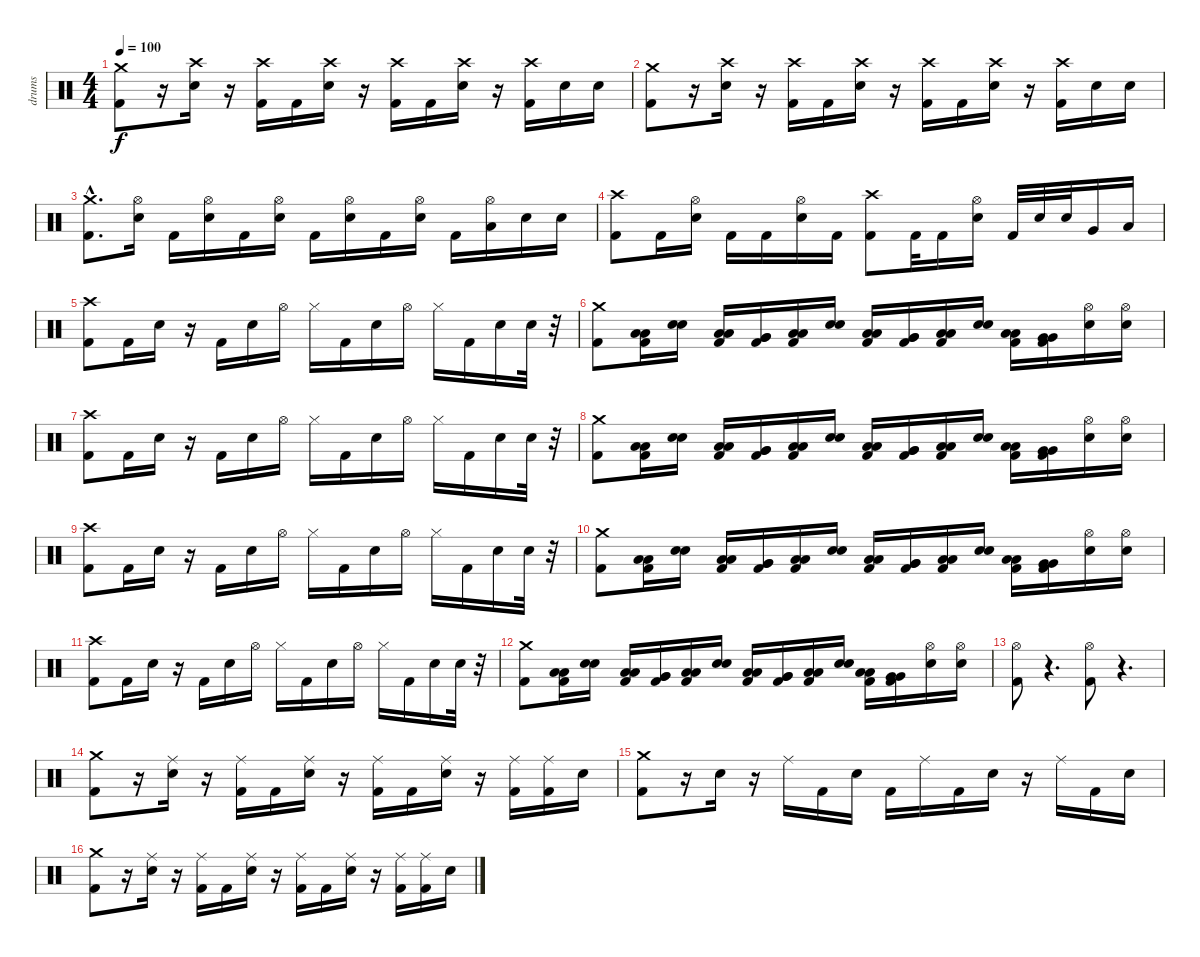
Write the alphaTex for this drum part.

\track ("drums" "drums") {instrument percussion}
\staff {score}
\articulation defaults
\ts (4 4)
\tempo 100
\clef neutral
\ks aminor
("Crash medium (hit)" "Kick (hit) 2").8{dy f} r.16 ("Crash high (hit)" "Snare (hit) 2").16 r.16 ("Crash high (hit)" "Kick (hit) 2").16 "Kick (hit) 2".16 ("Crash high (hit)" "Snare (hit) 2").16 r.16 ("Crash high (hit)" "Kick (hit) 2").16 "Kick (hit) 2".16 ("Crash high (hit)" "Snare (hit) 2").16 r.16 ("Crash high (hit)" "Kick (hit) 2").16 "Snare (hit) 2".16 "Snare (hit) 2".16 |
("Crash medium (hit)" "Kick (hit) 2").8 r.16 ("Crash high (hit)" "Snare (hit) 2").16 r.16 ("Crash high (hit)" "Kick (hit) 2").16 "Kick (hit) 2".16 ("Crash high (hit)" "Snare (hit) 2").16 r.16 ("Crash high (hit)" "Kick (hit) 2").16 "Kick (hit) 2".16 ("Crash high (hit)" "Snare (hit) 2").16 r.16 ("Crash high (hit)" "Kick (hit) 2").16 "Snare (hit) 2".16 "Snare (hit) 2".16 |
("Crash medium (hit)"{hac} "Kick (hit) 2"{hac}).8{d} ("Hi-Hat (open)" "Snare (hit) 2").16 "Kick (hit) 2".16 ("Hi-Hat (open)" "Snare (hit) 2").16 "Kick (hit) 2".16 ("Hi-Hat (open)" "Snare (hit) 2").16 "Kick (hit) 2".16 ("Hi-Hat (open)" "Snare (hit) 2").16 "Kick (hit) 2".16 ("Hi-Hat (open)" "Snare (hit) 2").16 "Kick (hit) 2".16 ("Hi-Hat (open)" "Low Floor Tom (hit)").16 "Snare (hit) 2".16 "Snare (hit) 2".16 |
("Crash high (hit)" "Kick (hit) 2").8 "Kick (hit) 2".16 ("Hi-Hat (open)" "Snare (hit) 2").16 "Kick (hit) 2".16 "Kick (hit) 2".16 ("Hi-Hat (open)" "Snare (hit) 2").16 "Kick (hit) 2".16 ("Crash high (hit)" "Kick (hit) 2").8 "Kick (hit) 2".32 "Kick (hit) 2".16 ("Hi-Hat (open)" "Snare (hit) 2").16 "Kick (hit) 2".32 "Snare (hit) 2".32 "Snare (hit) 2".32 "Very Low Tom (hit)".16 "Low Floor Tom (hit)".16 |
("Crash high (hit)" "Kick (hit) 2").8 "Kick (hit) 2".16 "Snare (hit) 2".16 r.16 "Kick (hit) 2".16 "Snare (hit) 2".16 "Hi-Hat (open)".16 "Hi-Hat (closed)".16 "Kick (hit) 2".16 "Snare (hit) 2".16 "Hi-Hat (open)".16 "Hi-Hat (closed)".16 "Kick (hit) 2".16 "Snare (hit) 2".16 "Snare (hit) 2".32 r.32 |
("Crash medium (hit)" "Kick (hit) 2").8 ("Low Floor Tom (hit)" "Low Floor Tom (hit)" "Kick (hit) 2").16 ("Snare (hit) 2" "Snare (hit) 2").16 ("Low Tom (hit)" "Low Tom (hit)" "Kick (hit) 2").16 ("Very Low Tom (hit)" "Very Low Tom (hit)" "Kick (hit) 2").16 ("Low Floor Tom (hit)" "Low Floor Tom (hit)" "Kick (hit) 2").16 ("Snare (hit) 2" "Snare (hit) 2").16 ("Low Tom (hit)" "Low Tom (hit)" "Kick (hit) 2").16 ("Very Low Tom (hit)" "Very Low Tom (hit)" "Kick (hit) 2").16 ("Low Floor Tom (hit)" "Low Floor Tom (hit)" "Kick (hit) 2").16 ("Snare (hit) 2" "Snare (hit) 2").16 ("Low Tom (hit)" "Low Tom (hit)" "Kick (hit) 2").16 ("Very Low Tom (hit)" "Very Low Tom (hit)" "Kick (hit) 2").16 ("Hi-Hat (open)" "Snare (hit) 2").16 ("Hi-Hat (open)" "Snare (hit) 2").16 |
("Crash high (hit)" "Kick (hit) 2").8 "Kick (hit) 2".16 "Snare (hit) 2".16 r.16 "Kick (hit) 2".16 "Snare (hit) 2".16 "Hi-Hat (open)".16 "Hi-Hat (closed)".16 "Kick (hit) 2".16 "Snare (hit) 2".16 "Hi-Hat (open)".16 "Hi-Hat (closed)".16 "Kick (hit) 2".16 "Snare (hit) 2".16 "Snare (hit) 2".32 r.32 |
("Crash medium (hit)" "Kick (hit) 2").8 ("Low Floor Tom (hit)" "Low Floor Tom (hit)" "Kick (hit) 2").16 ("Snare (hit) 2" "Snare (hit) 2").16 ("Low Tom (hit)" "Low Tom (hit)" "Kick (hit) 2").16 ("Very Low Tom (hit)" "Very Low Tom (hit)" "Kick (hit) 2").16 ("Low Floor Tom (hit)" "Low Floor Tom (hit)" "Kick (hit) 2").16 ("Snare (hit) 2" "Snare (hit) 2").16 ("Low Tom (hit)" "Low Tom (hit)" "Kick (hit) 2").16 ("Very Low Tom (hit)" "Very Low Tom (hit)" "Kick (hit) 2").16 ("Low Floor Tom (hit)" "Low Floor Tom (hit)" "Kick (hit) 2").16 ("Snare (hit) 2" "Snare (hit) 2").16 ("Low Tom (hit)" "Low Tom (hit)" "Kick (hit) 2").16 ("Very Low Tom (hit)" "Very Low Tom (hit)" "Kick (hit) 2").16 ("Hi-Hat (open)" "Snare (hit) 2").16 ("Hi-Hat (open)" "Snare (hit) 2").16 |
("Crash high (hit)" "Kick (hit) 2").8 "Kick (hit) 2".16 "Snare (hit) 2".16 r.16 "Kick (hit) 2".16 "Snare (hit) 2".16 "Hi-Hat (open)".16 "Hi-Hat (closed)".16 "Kick (hit) 2".16 "Snare (hit) 2".16 "Hi-Hat (open)".16 "Hi-Hat (closed)".16 "Kick (hit) 2".16 "Snare (hit) 2".16 "Snare (hit) 2".32 r.32 |
("Crash medium (hit)" "Kick (hit) 2").8 ("Low Floor Tom (hit)" "Low Floor Tom (hit)" "Kick (hit) 2").16 ("Snare (hit) 2" "Snare (hit) 2").16 ("Low Tom (hit)" "Low Tom (hit)" "Kick (hit) 2").16 ("Very Low Tom (hit)" "Very Low Tom (hit)" "Kick (hit) 2").16 ("Low Floor Tom (hit)" "Low Floor Tom (hit)" "Kick (hit) 2").16 ("Snare (hit) 2" "Snare (hit) 2").16 ("Low Tom (hit)" "Low Tom (hit)" "Kick (hit) 2").16 ("Very Low Tom (hit)" "Very Low Tom (hit)" "Kick (hit) 2").16 ("Low Floor Tom (hit)" "Low Floor Tom (hit)" "Kick (hit) 2").16 ("Snare (hit) 2" "Snare (hit) 2").16 ("Low Tom (hit)" "Low Tom (hit)" "Kick (hit) 2").16 ("Very Low Tom (hit)" "Very Low Tom (hit)" "Kick (hit) 2").16 ("Hi-Hat (open)" "Snare (hit) 2").16 ("Hi-Hat (open)" "Snare (hit) 2").16 |
("Crash high (hit)" "Kick (hit) 2").8 "Kick (hit) 2".16 "Snare (hit) 2".16 r.16 "Kick (hit) 2".16 "Snare (hit) 2".16 "Hi-Hat (open)".16 "Hi-Hat (closed)".16 "Kick (hit) 2".16 "Snare (hit) 2".16 "Hi-Hat (open)".16 "Hi-Hat (closed)".16 "Kick (hit) 2".16 "Snare (hit) 2".16 "Snare (hit) 2".32 r.32 |
("Crash medium (hit)" "Kick (hit) 2").8 ("Low Floor Tom (hit)" "Low Floor Tom (hit)" "Kick (hit) 2").16 ("Snare (hit) 2" "Snare (hit) 2").16 ("Low Tom (hit)" "Low Tom (hit)" "Kick (hit) 2").16 ("Very Low Tom (hit)" "Very Low Tom (hit)" "Kick (hit) 2").16 ("Low Floor Tom (hit)" "Low Floor Tom (hit)" "Kick (hit) 2").16 ("Snare (hit) 2" "Snare (hit) 2").16 ("Low Tom (hit)" "Low Tom (hit)" "Kick (hit) 2").16 ("Very Low Tom (hit)" "Very Low Tom (hit)" "Kick (hit) 2").16 ("Low Floor Tom (hit)" "Low Floor Tom (hit)" "Kick (hit) 2").16 ("Snare (hit) 2" "Snare (hit) 2").16 ("Low Tom (hit)" "Low Tom (hit)" "Kick (hit) 2").16 ("Very Low Tom (hit)" "Very Low Tom (hit)" "Kick (hit) 2").16 ("Hi-Hat (open)" "Snare (hit) 2").16 ("Hi-Hat (open)" "Snare (hit) 2").16 |
("Hi-Hat (open)" "Kick (hit) 2").8 r.4{d} ("Hi-Hat (open)" "Kick (hit) 2").8 r.4{d} |
("Crash medium (hit)" "Kick (hit) 2").8 r.16 ("Ride (middle)" "Snare (hit) 2").16 r.16 ("Ride (middle)" "Kick (hit) 2").16 "Kick (hit) 2".16 ("Ride (middle)" "Snare (hit) 2").16 r.16 ("Ride (middle)" "Kick (hit) 2").16 "Kick (hit) 2".16 ("Ride (middle)" "Snare (hit) 2").16 r.16 ("Ride (middle)" "Kick (hit) 2").16 ("Ride (middle)" "Kick (hit) 2").16 "Snare (hit) 2".16 |
("Crash medium (hit)" "Kick (hit) 2").8 r.16 "Snare (hit) 2".16 r.16 "Ride (middle)".16 "Kick (hit) 2".16 "Snare (hit) 2".16 "Kick (hit) 2".16 "Ride (middle)".16 "Kick (hit) 2".16 "Snare (hit) 2".16 r.16 "Ride (middle)".16 "Kick (hit) 2".16 "Snare (hit) 2".16 |
("Crash medium (hit)" "Kick (hit) 2").8 r.16 ("Ride (middle)" "Snare (hit) 2").16 r.16 ("Ride (middle)" "Kick (hit) 2").16 "Kick (hit) 2".16 ("Ride (middle)" "Snare (hit) 2").16 r.16 ("Ride (middle)" "Kick (hit) 2").16 "Kick (hit) 2".16 ("Ride (middle)" "Snare (hit) 2").16 r.16 ("Ride (middle)" "Kick (hit) 2").16 ("Ride (middle)" "Kick (hit) 2").16 "Snare (hit) 2".16
